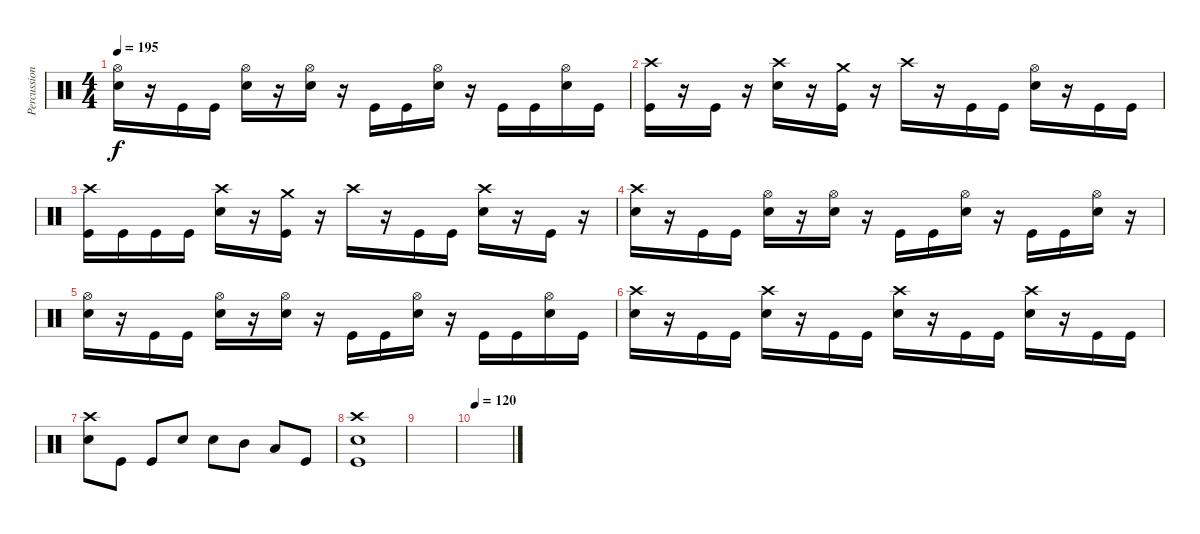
\track ("Percussion" "Percussion") {instrument percussion}
\staff {score}
\articulation defaults
\ts (4 4)
\tempo 195
\clef neutral
\ks c
("Hi-Hat (open)" "Electric Snare (hit)").16{dy f} r.16 "Kick (hit)".16 "Kick (hit)".16 ("Hi-Hat (open)" "Electric Snare (hit)").16 r.16 ("Hi-Hat (open)" "Electric Snare (hit)").16 r.16 "Kick (hit)".16 "Kick (hit)".16 ("Hi-Hat (open)" "Electric Snare (hit)").16 r.16 "Kick (hit)".16 "Kick (hit)".16 ("Hi-Hat (open)" "Electric Snare (hit)").16 "Kick (hit)".16 |
("Crash high (hit)" "Kick (hit)").16 r.16 "Kick (hit)".16 r.16 ("Crash high (hit)" "Electric Snare (hit)").16 r.16 ("Crash medium (hit)" "Kick (hit)").16 r.16 "Crash high (hit)".16 r.16 "Kick (hit)".16 "Kick (hit)".16 ("Hi-Hat (open)" "Electric Snare (hit)").16 r.16 "Kick (hit)".16 "Kick (hit)".16 |
("Crash high (hit)" "Kick (hit)").16 "Kick (hit)".16 "Kick (hit)".16 "Kick (hit)".16 ("Crash high (hit)" "Electric Snare (hit)").16 r.16 ("Crash medium (hit)" "Kick (hit)").16 r.16 "Crash high (hit)".16 r.16 "Kick (hit)".16 "Kick (hit)".16 ("Crash high (hit)" "Electric Snare (hit)").16 r.16 "Kick (hit)".16 r.16 |
("Crash high (hit)" "Electric Snare (hit)").16 r.16 "Kick (hit)".16 "Kick (hit)".16 ("Hi-Hat (open)" "Electric Snare (hit)").16 r.16 ("Hi-Hat (open)" "Electric Snare (hit)").16 r.16 "Kick (hit)".16 "Kick (hit)".16 ("Hi-Hat (open)" "Electric Snare (hit)").16 r.16 "Kick (hit)".16 "Kick (hit)".16 ("Hi-Hat (open)" "Electric Snare (hit)").16 r.16 |
("Hi-Hat (open)" "Electric Snare (hit)").16 r.16 "Kick (hit)".16 "Kick (hit)".16 ("Hi-Hat (open)" "Electric Snare (hit)").16 r.16 ("Hi-Hat (open)" "Electric Snare (hit)").16 r.16 "Kick (hit)".16 "Kick (hit)".16 ("Hi-Hat (open)" "Electric Snare (hit)").16 r.16 "Kick (hit)".16 "Kick (hit)".16 ("Hi-Hat (open)" "Electric Snare (hit)").16 "Kick (hit)".16 |
("Crash high (hit)" "Electric Snare (hit)").16 r.16 "Kick (hit)".16 "Kick (hit)".16 ("Crash high (hit)" "Electric Snare (hit)").16 r.16 "Kick (hit)".16 "Kick (hit)".16 ("Crash high (hit)" "Electric Snare (hit)").16 r.16 "Kick (hit)".16 "Kick (hit)".16 ("Crash high (hit)" "Electric Snare (hit)").16 r.16 "Kick (hit)".16 "Kick (hit)".16 |
("Crash high (hit)" "Electric Snare (hit)").8 "Kick (hit)".8 "Kick (hit)".8 "Electric Snare (hit)".8 "Electric Snare (hit)".8 "Mid Tom (hit)".8 "Low Tom (hit)".8 "Kick (hit)".8 |
("Crash high (hit)" "Electric Snare (hit)" "Kick (hit)").1 |
|
\tempo 120
